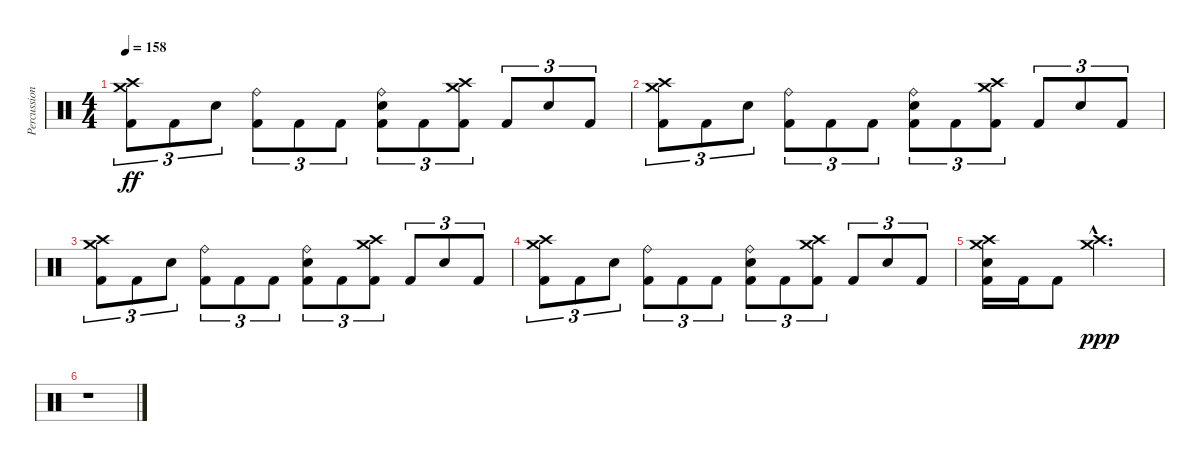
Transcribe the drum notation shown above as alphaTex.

\track ("Percussion" "Percussion") {instrument percussion}
\staff {score}
\articulation defaults
\ts (4 4)
\tempo 158
\clef neutral
\ks c
("Crash medium (hit)" "Crash high (hit)" "Kick (hit) 2").8{tu (3 2) dy ff} "Kick (hit) 2".8{tu (3 2)} "Snare (hit) 2".8{tu (3 2)} ("Ride (bell)" "Kick (hit) 2").8{tu (3 2)} "Kick (hit) 2".8{tu (3 2)} "Kick (hit) 2".8{tu (3 2)} ("Ride (bell)" "Snare (hit) 2" "Kick (hit) 2").8{tu (3 2)} "Kick (hit) 2".8{tu (3 2)} ("Crash medium (hit)" "Crash high (hit)" "Kick (hit) 2").8{tu (3 2)} "Kick (hit) 2".8{tu (3 2)} "Snare (hit) 2".8{tu (3 2)} "Kick (hit) 2".8{tu (3 2)} |
("Crash medium (hit)" "Crash high (hit)" "Kick (hit) 2").8{tu (3 2)} "Kick (hit) 2".8{tu (3 2)} "Snare (hit) 2".8{tu (3 2)} ("Ride (bell)" "Kick (hit) 2").8{tu (3 2)} "Kick (hit) 2".8{tu (3 2)} "Kick (hit) 2".8{tu (3 2)} ("Ride (bell)" "Snare (hit) 2" "Kick (hit) 2").8{tu (3 2)} "Kick (hit) 2".8{tu (3 2)} ("Crash medium (hit)" "Crash high (hit)" "Kick (hit) 2").8{tu (3 2)} "Kick (hit) 2".8{tu (3 2)} "Snare (hit) 2".8{tu (3 2)} "Kick (hit) 2".8{tu (3 2)} |
("Crash medium (hit)" "Crash high (hit)" "Kick (hit) 2").8{tu (3 2)} "Kick (hit) 2".8{tu (3 2)} "Snare (hit) 2".8{tu (3 2)} ("Ride (bell)" "Kick (hit) 2").8{tu (3 2)} "Kick (hit) 2".8{tu (3 2)} "Kick (hit) 2".8{tu (3 2)} ("Ride (bell)" "Snare (hit) 2" "Kick (hit) 2").8{tu (3 2)} "Kick (hit) 2".8{tu (3 2)} ("Crash medium (hit)" "Crash high (hit)" "Kick (hit) 2").8{tu (3 2)} "Kick (hit) 2".8{tu (3 2)} "Snare (hit) 2".8{tu (3 2)} "Kick (hit) 2".8{tu (3 2)} |
("Crash medium (hit)" "Crash high (hit)" "Kick (hit) 2").8{tu (3 2)} "Kick (hit) 2".8{tu (3 2)} "Snare (hit) 2".8{tu (3 2)} ("Ride (bell)" "Kick (hit) 2").8{tu (3 2)} "Kick (hit) 2".8{tu (3 2)} "Kick (hit) 2".8{tu (3 2)} ("Ride (bell)" "Snare (hit) 2" "Kick (hit) 2").8{tu (3 2)} "Kick (hit) 2".8{tu (3 2)} ("Crash medium (hit)" "Crash high (hit)" "Kick (hit) 2").8{tu (3 2)} "Kick (hit) 2".8{tu (3 2)} "Snare (hit) 2".8{tu (3 2)} "Kick (hit) 2".8{tu (3 2)} |
("Crash high (hit)" "Crash medium (hit)" "Snare (hit) 2" "Kick (hit) 2").16 "Kick (hit) 2".16 "Kick (hit) 2".8 ("Crash high (hit)"{hac} "Crash medium (hit)"{hac}).2{d dy ppp} |
r.1
